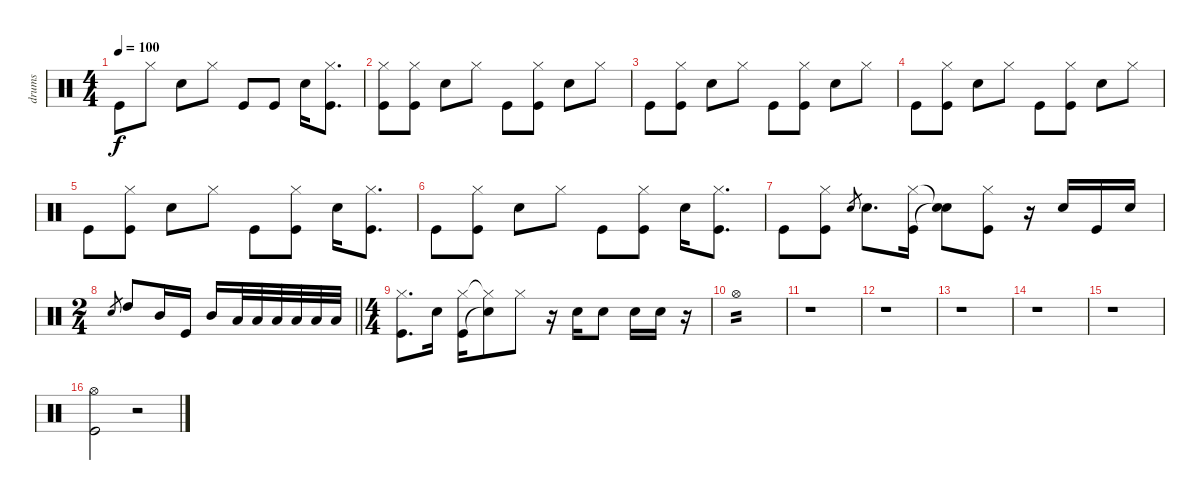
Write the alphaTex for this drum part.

\track ("drums" "drums") {instrument percussion}
\staff {score}
\articulation defaults
\ts (4 4)
\tempo 100
\clef neutral
\ks aminor "Kick (hit)".8{dy f} "Hi-Hat (closed)".8 "Snare (hit) 2".8 "Hi-Hat (closed)".8 "Kick (hit)".8 "Kick (hit)".8 "Snare (hit) 2".16
("Hi-Hat (closed)" "Kick (hit)").8{d} |
("Hi-Hat (closed)" "Kick (hit)").8 ("Hi-Hat (closed)" "Kick (hit)").8 "Snare (hit) 2".8 "Hi-Hat (closed)".8 "Kick (hit)".8 ("Hi-Hat (closed)" "Kick (hit)").8 "Snare (hit) 2".8 "Hi-Hat (closed)".8 |
"Kick (hit)".8 ("Hi-Hat (closed)" "Kick (hit)").8 "Snare (hit) 2".8 "Hi-Hat (closed)".8 "Kick (hit)".8 ("Hi-Hat (closed)" "Kick (hit)").8 "Snare (hit) 2".8 "Hi-Hat (closed)".8 |
"Kick (hit)".8 ("Hi-Hat (closed)" "Kick (hit)").8 "Snare (hit) 2".8 "Hi-Hat (closed)".8 "Kick (hit)".8 ("Hi-Hat (closed)" "Kick (hit)").8 "Snare (hit) 2".8 "Hi-Hat (closed)".8 |
"Kick (hit)".8 ("Hi-Hat (closed)" "Kick (hit)").8 "Snare (hit) 2".8 "Hi-Hat (closed)".8 "Kick (hit)".8 ("Hi-Hat (closed)" "Kick (hit)").8 "Snare (hit) 2".16 ("Hi-Hat (closed)" "Kick (hit)").8{d} |
"Kick (hit)".8 ("Hi-Hat (closed)" "Kick (hit)").8 "Snare (hit) 2".8 "Hi-Hat (closed)".8 "Kick (hit)".8 ("Hi-Hat (closed)" "Kick (hit)").8 "Snare (hit) 2".16 ("Hi-Hat (closed)" "Kick (hit)").8{d} |
"Kick (hit)".8 ("Hi-Hat (closed)" "Kick (hit)").8 "Snare (hit) 2".8{gr} "Snare (hit) 2".8{d} ("Hi-Hat (closed)" "Kick (hit)").16 ("Snare (hit)"{t} "Snare (hit)"{t}).8 ("Hi-Hat (closed)" "Kick (hit)").8 r.16 "Snare (hit) 2".16 "Kick (hit)".16 "Snare (hit) 2".16 |
\ts (2 4)
\barLineRight lightlight "Snare (hit) 2".8{gr} "High Tom (hit)".8 "Mid Tom (hit)".16 "Kick (hit)".16 "Mid Tom (hit)".16 "Low Tom (hit)".32 "Low Tom (hit)".32 "Low Tom (hit)".32 "Low Tom (hit)".32 "Low Tom (hit)".32 "Low Tom (hit)".32
|
\ts (4 4)
("Hi-Hat (closed)" "Kick (hit)").8{d} "Snare (hit) 2".16 ("Hi-Hat (closed)" "Kick (hit)").16 ("Hi-Hat (closed)"{t} "Snare (hit)"{t}).8 "Hi-Hat (closed)".8 r.16 "Snare (hit) 2".16 "Snare (hit) 2".8 "Snare (hit) 2".16 "Snare (hit) 2".16 r.16 |
"Hi-Hat (open)".1{tp 2} |
r.1 |
r.1 |
r.1 |
r.1 |
r.1 |
("Hi-Hat (open)" "Kick (hit)").2 r.2
